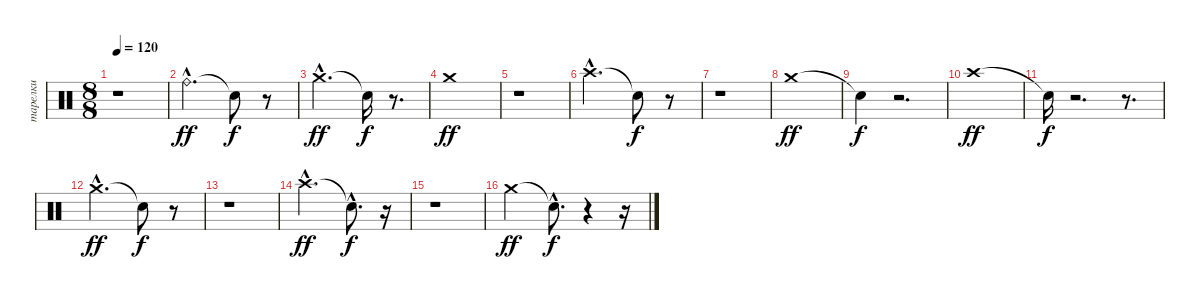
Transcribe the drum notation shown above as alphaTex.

\track ("тарелки" "тарелки") {instrument percussion}
\staff {score}
\articulation defaults
\ts (8 8)
\tempo 120
\clef neutral
\ks c
r.1{dy ff} |
"Ride (bell)"{hac}.2{d} "Snare (hit)"{t}.8{dy f} r.8 |
"Crash medium (hit)"{hac}.2{d dy ff} "Snare (hit)"{t}.16{dy f} r.8{d} |
"Crash medium (hit)".1{dy ff} |
r.1 |
"Crash high (hit)"{hac}.2{d} "Snare (hit)"{t}.8{dy f} r.8 |
r.1 |
"Crash medium (hit)".1{dy ff} |
"Snare (hit)"{t}.4{dy f} r.2{d} |
"Crash high (hit)".1{dy ff} |
"Snare (hit)"{t}.16{dy f} r.2{d} r.8{d} |
"Crash medium (hit)"{hac}.2{d dy ff} "Snare (hit)"{t}.8{dy f} r.8 |
r.1 |
"Crash high (hit)"{hac}.2{d dy ff volume 13} "Snare (hit)"{hac t}.8{d dy f} r.16 |
r.1 |
"Crash medium (hit)".2{dy ff volume 9} "Snare (hit)"{hac t}.8{d dy f} r.4 r.16
